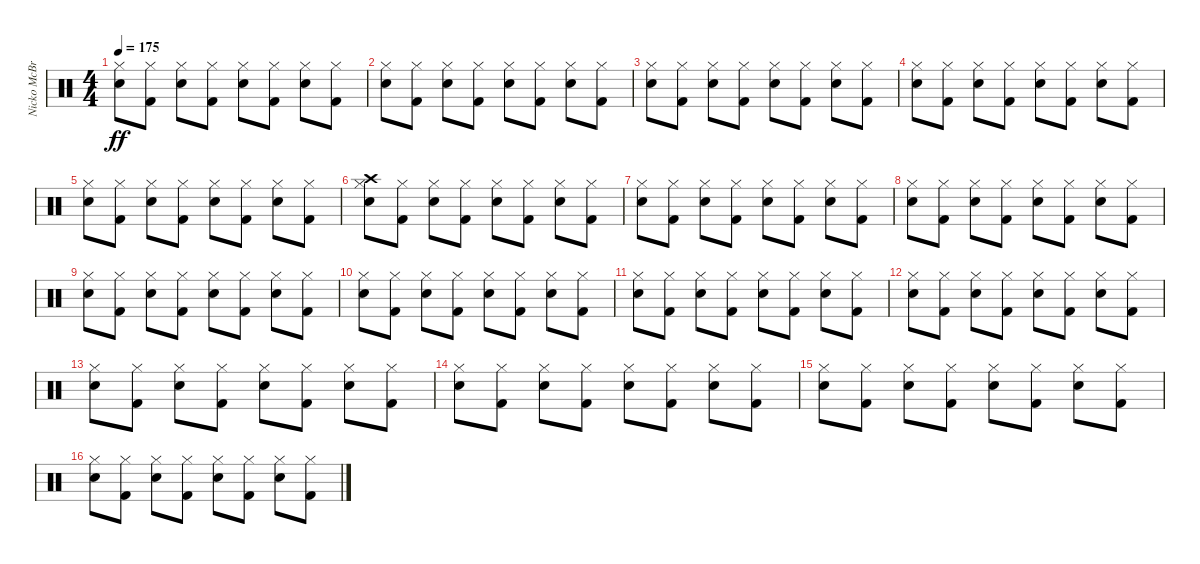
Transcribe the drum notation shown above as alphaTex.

\track ("Nicko McBrain" "Nicko McBr") {instrument percussion}
\staff {score}
\articulation defaults
\ts (4 4)
\tempo 175
\clef neutral
\ks c
("Snare (hit) 2" "Hi-Hat (closed)").8{dy ff} ("Kick (hit) 2" "Hi-Hat (closed)").8 ("Snare (hit) 2" "Hi-Hat (closed)").8 ("Kick (hit) 2" "Hi-Hat (closed)").8 ("Snare (hit) 2" "Hi-Hat (closed)").8 ("Kick (hit) 2" "Hi-Hat (closed)").8 ("Snare (hit) 2" "Hi-Hat (closed)").8 ("Kick (hit) 2" "Hi-Hat (closed)").8 |
("Snare (hit) 2" "Hi-Hat (closed)").8 ("Kick (hit) 2" "Hi-Hat (closed)").8 ("Snare (hit) 2" "Hi-Hat (closed)").8 ("Kick (hit) 2" "Hi-Hat (closed)").8 ("Snare (hit) 2" "Hi-Hat (closed)").8 ("Kick (hit) 2" "Hi-Hat (closed)").8 ("Snare (hit) 2" "Hi-Hat (closed)").8 ("Kick (hit) 2" "Hi-Hat (closed)").8 |
("Snare (hit) 2" "Hi-Hat (closed)").8 ("Kick (hit) 2" "Hi-Hat (closed)").8 ("Snare (hit) 2" "Hi-Hat (closed)").8 ("Kick (hit) 2" "Hi-Hat (closed)").8 ("Snare (hit) 2" "Hi-Hat (closed)").8 ("Kick (hit) 2" "Hi-Hat (closed)").8 ("Snare (hit) 2" "Hi-Hat (closed)").8 ("Kick (hit) 2" "Hi-Hat (closed)").8 |
("Snare (hit) 2" "Hi-Hat (closed)").8 ("Kick (hit) 2" "Hi-Hat (closed)").8 ("Snare (hit) 2" "Hi-Hat (closed)").8 ("Kick (hit) 2" "Hi-Hat (closed)").8 ("Snare (hit) 2" "Hi-Hat (closed)").8 ("Kick (hit) 2" "Hi-Hat (closed)").8 ("Snare (hit) 2" "Hi-Hat (closed)").8 ("Kick (hit) 2" "Hi-Hat (closed)").8 |
("Snare (hit) 2" "Hi-Hat (closed)").8 ("Kick (hit) 2" "Hi-Hat (closed)").8 ("Snare (hit) 2" "Hi-Hat (closed)").8 ("Kick (hit) 2" "Hi-Hat (closed)").8 ("Snare (hit) 2" "Hi-Hat (closed)").8 ("Kick (hit) 2" "Hi-Hat (closed)").8 ("Snare (hit) 2" "Hi-Hat (closed)").8 ("Kick (hit) 2" "Hi-Hat (closed)").8 |
("Snare (hit) 2" "Hi-Hat (closed)" "Crash high (hit)").8 ("Kick (hit) 2" "Hi-Hat (closed)").8 ("Snare (hit) 2" "Hi-Hat (closed)").8 ("Kick (hit) 2" "Hi-Hat (closed)").8 ("Snare (hit) 2" "Hi-Hat (closed)").8 ("Kick (hit) 2" "Hi-Hat (closed)").8 ("Snare (hit) 2" "Hi-Hat (closed)").8 ("Kick (hit) 2" "Hi-Hat (closed)").8 |
("Snare (hit) 2" "Hi-Hat (closed)").8 ("Kick (hit) 2" "Hi-Hat (closed)").8 ("Snare (hit) 2" "Hi-Hat (closed)").8 ("Kick (hit) 2" "Hi-Hat (closed)").8 ("Snare (hit) 2" "Hi-Hat (closed)").8 ("Kick (hit) 2" "Hi-Hat (closed)").8 ("Snare (hit) 2" "Hi-Hat (closed)").8 ("Kick (hit) 2" "Hi-Hat (closed)").8 |
("Snare (hit) 2" "Hi-Hat (closed)").8 ("Kick (hit) 2" "Hi-Hat (closed)").8 ("Snare (hit) 2" "Hi-Hat (closed)").8 ("Kick (hit) 2" "Hi-Hat (closed)").8 ("Snare (hit) 2" "Hi-Hat (closed)").8 ("Kick (hit) 2" "Hi-Hat (closed)").8 ("Snare (hit) 2" "Hi-Hat (closed)").8 ("Kick (hit) 2" "Hi-Hat (closed)").8 |
("Snare (hit) 2" "Hi-Hat (closed)").8 ("Kick (hit) 2" "Hi-Hat (closed)").8 ("Snare (hit) 2" "Hi-Hat (closed)").8 ("Kick (hit) 2" "Hi-Hat (closed)").8 ("Snare (hit) 2" "Hi-Hat (closed)").8 ("Kick (hit) 2" "Hi-Hat (closed)").8 ("Snare (hit) 2" "Hi-Hat (closed)").8 ("Kick (hit) 2" "Hi-Hat (closed)").8 |
("Snare (hit) 2" "Hi-Hat (closed)").8 ("Kick (hit) 2" "Hi-Hat (closed)").8 ("Snare (hit) 2" "Hi-Hat (closed)").8 ("Kick (hit) 2" "Hi-Hat (closed)").8 ("Snare (hit) 2" "Hi-Hat (closed)").8 ("Kick (hit) 2" "Hi-Hat (closed)").8 ("Snare (hit) 2" "Hi-Hat (closed)").8 ("Kick (hit) 2" "Hi-Hat (closed)").8 |
("Snare (hit) 2" "Hi-Hat (closed)").8 ("Kick (hit) 2" "Hi-Hat (closed)").8 ("Snare (hit) 2" "Hi-Hat (closed)").8 ("Kick (hit) 2" "Hi-Hat (closed)").8 ("Snare (hit) 2" "Hi-Hat (closed)").8 ("Kick (hit) 2" "Hi-Hat (closed)").8 ("Snare (hit) 2" "Hi-Hat (closed)").8 ("Kick (hit) 2" "Hi-Hat (closed)").8 |
("Snare (hit) 2" "Hi-Hat (closed)").8 ("Kick (hit) 2" "Hi-Hat (closed)").8 ("Snare (hit) 2" "Hi-Hat (closed)").8 ("Kick (hit) 2" "Hi-Hat (closed)").8 ("Snare (hit) 2" "Hi-Hat (closed)").8 ("Kick (hit) 2" "Hi-Hat (closed)").8 ("Snare (hit) 2" "Hi-Hat (closed)").8 ("Kick (hit) 2" "Hi-Hat (closed)").8 |
("Snare (hit) 2" "Hi-Hat (closed)").8 ("Kick (hit) 2" "Hi-Hat (closed)").8 ("Snare (hit) 2" "Hi-Hat (closed)").8 ("Kick (hit) 2" "Hi-Hat (closed)").8 ("Snare (hit) 2" "Hi-Hat (closed)").8 ("Kick (hit) 2" "Hi-Hat (closed)").8 ("Snare (hit) 2" "Hi-Hat (closed)").8 ("Kick (hit) 2" "Hi-Hat (closed)").8 |
("Snare (hit) 2" "Hi-Hat (closed)").8 ("Kick (hit) 2" "Hi-Hat (closed)").8 ("Snare (hit) 2" "Hi-Hat (closed)").8 ("Kick (hit) 2" "Hi-Hat (closed)").8 ("Snare (hit) 2" "Hi-Hat (closed)").8 ("Kick (hit) 2" "Hi-Hat (closed)").8 ("Snare (hit) 2" "Hi-Hat (closed)").8 ("Kick (hit) 2" "Hi-Hat (closed)").8 |
("Snare (hit) 2" "Hi-Hat (closed)").8 ("Kick (hit) 2" "Hi-Hat (closed)").8 ("Snare (hit) 2" "Hi-Hat (closed)").8 ("Kick (hit) 2" "Hi-Hat (closed)").8 ("Snare (hit) 2" "Hi-Hat (closed)").8 ("Kick (hit) 2" "Hi-Hat (closed)").8 ("Snare (hit) 2" "Hi-Hat (closed)").8 ("Kick (hit) 2" "Hi-Hat (closed)").8 |
("Snare (hit) 2" "Hi-Hat (closed)").8 ("Kick (hit) 2" "Hi-Hat (closed)").8 ("Snare (hit) 2" "Hi-Hat (closed)").8 ("Kick (hit) 2" "Hi-Hat (closed)").8 ("Snare (hit) 2" "Hi-Hat (closed)").8 ("Kick (hit) 2" "Hi-Hat (closed)").8 ("Snare (hit) 2" "Hi-Hat (closed)").8 ("Kick (hit) 2" "Hi-Hat (closed)").8
